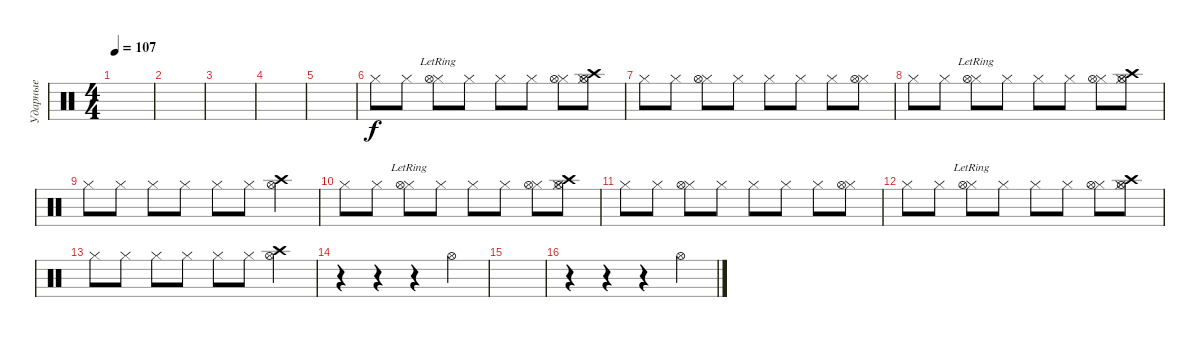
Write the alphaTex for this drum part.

\track ("Ударные" "Ударные") {instrument percussion}
\staff {score}
\articulation defaults
\ts (4 4)
\tempo 107
\clef neutral
\ks c
|
|
|
|
|
"Hi-Hat (closed)".8 "Hi-Hat (closed)".8 ("Hi-Hat (closed)" "Hi-Hat (open)"{lr}).8 "Hi-Hat (closed)".8 "Hi-Hat (closed)".8 "Hi-Hat (closed)".8 ("Hi-Hat (closed)" "Hi-Hat (open)").8 ("Hi-Hat (closed)" "Hi-Hat (open)" "Crash high (hit)").8 |
"Hi-Hat (closed)".8 "Hi-Hat (closed)".8 ("Hi-Hat (closed)" "Hi-Hat (open)").8 "Hi-Hat (closed)".8 "Hi-Hat (closed)".8 "Hi-Hat (closed)".8 "Hi-Hat (closed)".8 ("Hi-Hat (closed)" "Hi-Hat (open)").8 |
"Hi-Hat (closed)".8 "Hi-Hat (closed)".8 ("Hi-Hat (closed)" "Hi-Hat (open)"{lr}).8 "Hi-Hat (closed)".8 "Hi-Hat (closed)".8 "Hi-Hat (closed)".8 ("Hi-Hat (closed)" "Hi-Hat (open)").8 ("Hi-Hat (closed)" "Hi-Hat (open)" "Crash high (hit)").8 |
"Hi-Hat (closed)".8 "Hi-Hat (closed)".8 "Hi-Hat (closed)".8 "Hi-Hat (closed)".8 "Hi-Hat (closed)".8 "Hi-Hat (closed)".8 ("Hi-Hat (open)" "Crash high (hit)").4 |
"Hi-Hat (closed)".8 "Hi-Hat (closed)".8 ("Hi-Hat (closed)" "Hi-Hat (open)"{lr}).8 "Hi-Hat (closed)".8 "Hi-Hat (closed)".8 "Hi-Hat (closed)".8 ("Hi-Hat (closed)" "Hi-Hat (open)").8 ("Hi-Hat (closed)" "Hi-Hat (open)" "Crash high (hit)").8 |
"Hi-Hat (closed)".8 "Hi-Hat (closed)".8 ("Hi-Hat (closed)" "Hi-Hat (open)").8 "Hi-Hat (closed)".8 "Hi-Hat (closed)".8 "Hi-Hat (closed)".8 "Hi-Hat (closed)".8 ("Hi-Hat (closed)" "Hi-Hat (open)").8 |
"Hi-Hat (closed)".8 "Hi-Hat (closed)".8 ("Hi-Hat (closed)" "Hi-Hat (open)"{lr}).8 "Hi-Hat (closed)".8 "Hi-Hat (closed)".8 "Hi-Hat (closed)".8 ("Hi-Hat (closed)" "Hi-Hat (open)").8 ("Hi-Hat (closed)" "Hi-Hat (open)" "Crash high (hit)").8 |
"Hi-Hat (closed)".8 "Hi-Hat (closed)".8 "Hi-Hat (closed)".8 "Hi-Hat (closed)".8 "Hi-Hat (closed)".8 "Hi-Hat (closed)".8 ("Hi-Hat (open)" "Crash high (hit)").4 |
r.4 r.4 r.4 "Hi-Hat (open)".4 |
|
r.4 r.4 r.4 "Hi-Hat (open)".4
